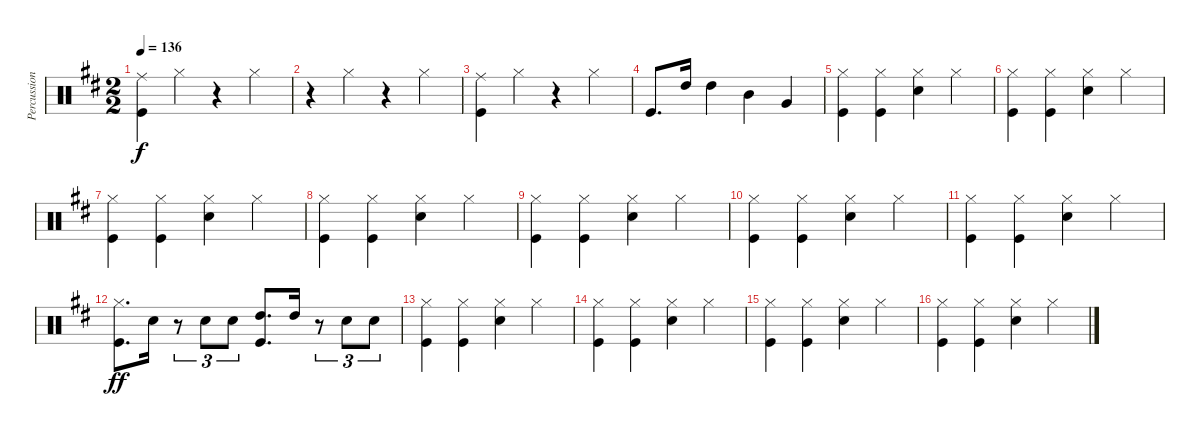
\track ("Percussion" "Percussion") {instrument percussion}
\staff {score}
\articulation defaults
\ts (2 2)
\tempo 136
\clef neutral
\ks d
("Ride (middle)" "Kick (hit)").4{dy f} "Hi-Hat (closed)".4 r.4 "Hi-Hat (closed)".4 |
r.4 "Hi-Hat (closed)".4 r.4 "Hi-Hat (closed)".4 |
("Ride (middle)" "Kick (hit)").4 "Hi-Hat (closed)".4 r.4 "Hi-Hat (closed)".4 |
"Kick (hit)".8{d} "High Tom (hit)".16 "High Tom (hit)".4 "Mid Tom (hit)".4 "Very Low Tom (hit)".4 |
("Hi-Hat (closed)" "Kick (hit)").4 ("Hi-Hat (closed)" "Kick (hit)").4 ("Snare (hit) 2" "Hi-Hat (closed)").4 "Hi-Hat (closed)".4 |
("Hi-Hat (closed)" "Kick (hit)").4 ("Hi-Hat (closed)" "Kick (hit)").4 ("Snare (hit) 2" "Hi-Hat (closed)").4 "Hi-Hat (closed)".4 |
("Hi-Hat (closed)" "Kick (hit)").4 ("Hi-Hat (closed)" "Kick (hit)").4 ("Snare (hit) 2" "Hi-Hat (closed)").4 "Hi-Hat (closed)".4 |
("Hi-Hat (closed)" "Kick (hit)").4 ("Hi-Hat (closed)" "Kick (hit)").4 ("Snare (hit) 2" "Hi-Hat (closed)").4 "Hi-Hat (closed)".4 |
("Hi-Hat (closed)" "Kick (hit)").4 ("Hi-Hat (closed)" "Kick (hit)").4 ("Snare (hit) 2" "Hi-Hat (closed)").4 "Hi-Hat (closed)".4 |
("Hi-Hat (closed)" "Kick (hit)").4 ("Hi-Hat (closed)" "Kick (hit)").4 ("Snare (hit) 2" "Hi-Hat (closed)").4 "Hi-Hat (closed)".4 |
("Hi-Hat (closed)" "Kick (hit)").4 ("Hi-Hat (closed)" "Kick (hit)").4 ("Snare (hit) 2" "Hi-Hat (closed)").4 "Hi-Hat (closed)".4 |
("Hi-Hat (closed)" "Kick (hit)").8{d dy ff} "Snare (hit) 2".16 r.8{tu (3 2)} "Snare (hit) 2".8{tu (3 2)} "Snare (hit) 2".8{tu (3 2)} ("High Tom (hit)" "Kick (hit)").8{d} "High Tom (hit)".16 r.8{tu (3 2)} "Snare (hit) 2".8{tu (3 2)} "Snare (hit) 2".8{tu (3 2)} |
("Hi-Hat (closed)" "Kick (hit)").4 ("Hi-Hat (closed)" "Kick (hit)").4 ("Hi-Hat (closed)" "Snare (hit) 2").4 "Hi-Hat (closed)".4 |
("Hi-Hat (closed)" "Kick (hit)").4 ("Hi-Hat (closed)" "Kick (hit)").4 ("Hi-Hat (closed)" "Snare (hit) 2").4 "Hi-Hat (closed)".4 |
("Hi-Hat (closed)" "Kick (hit)").4 ("Hi-Hat (closed)" "Kick (hit)").4 ("Hi-Hat (closed)" "Snare (hit) 2").4 "Hi-Hat (closed)".4 |
("Hi-Hat (closed)" "Kick (hit)").4 ("Hi-Hat (closed)" "Kick (hit)").4 ("Hi-Hat (closed)" "Snare (hit) 2").4 "Hi-Hat (closed)".4
